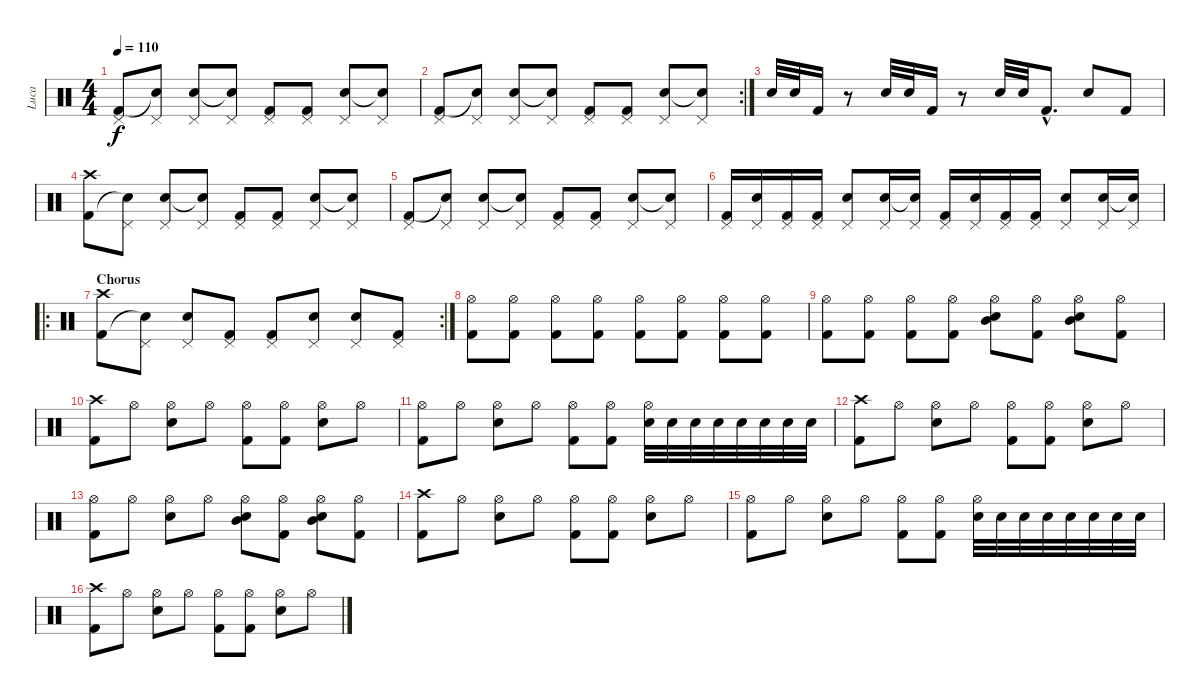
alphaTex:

\track ("Luca" "Luca") {instrument percussion}
\staff {score}
\articulation defaults
\ts (4 4)
\tempo 110
\clef neutral
\ks c
("Pedal Hi-Hat (hit)" "Kick (hit) 2").8{dy f} ("Pedal Hi-Hat (hit)" "Snare (hit) 2"{t}).8 ("Pedal Hi-Hat (hit)" "Snare (hit) 2").8 ("Pedal Hi-Hat (hit)" "Snare (hit)"{t}).8 ("Pedal Hi-Hat (hit)" "Kick (hit) 2").8 ("Pedal Hi-Hat (hit)" "Kick (hit) 2").8 ("Pedal Hi-Hat (hit)" "Snare (hit) 2").8 ("Pedal Hi-Hat (hit)" "Snare (hit)"{t}).8 |
\rc 2
("Pedal Hi-Hat (hit)" "Kick (hit) 2").8 ("Pedal Hi-Hat (hit)" "Snare (hit) 2"{t}).8 ("Pedal Hi-Hat (hit)" "Snare (hit) 2").8 ("Pedal Hi-Hat (hit)" "Snare (hit)"{t}).8 ("Pedal Hi-Hat (hit)" "Kick (hit) 2").8 ("Pedal Hi-Hat (hit)" "Kick (hit) 2").8 ("Pedal Hi-Hat (hit)" "Snare (hit) 2").8 ("Pedal Hi-Hat (hit)" "Snare (hit)"{t}).8 |
"Snare (hit) 2".32 "Snare (hit) 2".32 "Kick (hit) 2".16 r.8 "Snare (hit) 2".32 "Snare (hit) 2".32 "Kick (hit) 2".16 r.8 "Snare (hit) 2".32 "Snare (hit) 2".32 "Kick (hit) 2"{hac}.8{d} "Snare (hit) 2".8 "Kick (hit) 2".8 |
("Crash high (hit)" "Kick (hit) 2").8 ("Pedal Hi-Hat (hit)" "Snare (hit) 2"{t}).8 ("Pedal Hi-Hat (hit)" "Snare (hit) 2").8 ("Pedal Hi-Hat (hit)" "Snare (hit)"{t}).8 ("Pedal Hi-Hat (hit)" "Kick (hit) 2").8 ("Pedal Hi-Hat (hit)" "Kick (hit) 2").8 ("Pedal Hi-Hat (hit)" "Snare (hit) 2").8 ("Pedal Hi-Hat (hit)" "Snare (hit)"{t}).8 |
("Pedal Hi-Hat (hit)" "Kick (hit) 2").8 ("Pedal Hi-Hat (hit)" "Snare (hit) 2"{t}).8 ("Pedal Hi-Hat (hit)" "Snare (hit) 2").8 ("Pedal Hi-Hat (hit)" "Snare (hit)"{t}).8 ("Pedal Hi-Hat (hit)" "Kick (hit) 2").8 ("Pedal Hi-Hat (hit)" "Kick (hit) 2").8 ("Pedal Hi-Hat (hit)" "Snare (hit) 2").8 ("Pedal Hi-Hat (hit)" "Snare (hit)"{t}).8 |
("Pedal Hi-Hat (hit)" "Kick (hit) 2").16 ("Pedal Hi-Hat (hit)" "Snare (hit) 2").16 ("Pedal Hi-Hat (hit)" "Kick (hit) 2").16 ("Pedal Hi-Hat (hit)" "Kick (hit) 2").16 ("Pedal Hi-Hat (hit)" "Snare (hit) 2").8 ("Pedal Hi-Hat (hit)" "Snare (hit) 2").16 ("Pedal Hi-Hat (hit)" "Snare (hit) 2"{t}).16 ("Pedal Hi-Hat (hit)" "Kick (hit) 2").16 ("Pedal Hi-Hat (hit)" "Snare (hit) 2").16 ("Pedal Hi-Hat (hit)" "Kick (hit) 2").16 ("Pedal Hi-Hat (hit)" "Kick (hit) 2").16 ("Pedal Hi-Hat (hit)" "Snare (hit) 2").8 ("Pedal Hi-Hat (hit)" "Snare (hit) 2").16 ("Pedal Hi-Hat (hit)" "Snare (hit) 2"{t}).16 |
\ro
\rc 2
\section ("" "Chorus")
("Crash high (hit)" "Kick (hit) 2").8 ("Pedal Hi-Hat (hit)" "Snare (hit)"{t}).8 ("Pedal Hi-Hat (hit)" "Snare (hit) 2").8 ("Pedal Hi-Hat (hit)" "Kick (hit) 2").8 ("Pedal Hi-Hat (hit)" "Kick (hit) 2").8 ("Pedal Hi-Hat (hit)" "Snare (hit) 2").8 ("Pedal Hi-Hat (hit)" "Snare (hit) 2").8 ("Pedal Hi-Hat (hit)" "Kick (hit) 2").8 |
("Hi-Hat (open)" "Kick (hit) 2").8 ("Hi-Hat (open)" "Kick (hit) 2").8 ("Hi-Hat (open)" "Kick (hit) 2").8 ("Hi-Hat (open)" "Kick (hit) 2").8 ("Hi-Hat (open)" "Kick (hit) 2").8 ("Hi-Hat (open)" "Kick (hit) 2").8 ("Hi-Hat (open)" "Kick (hit) 2").8 ("Hi-Hat (open)" "Kick (hit) 2").8 |
("Hi-Hat (open)" "Kick (hit) 2").8 ("Hi-Hat (open)" "Kick (hit) 2").8 ("Hi-Hat (open)" "Kick (hit) 2").8 ("Hi-Hat (open)" "Kick (hit) 2").8 ("Hi-Hat (open)" "Snare (hit) 2" "Mid Tom (hit)").8 ("Hi-Hat (open)" "Kick (hit) 2").8 ("Hi-Hat (open)" "Snare (hit) 2" "Mid Tom (hit)").8 ("Hi-Hat (open)" "Kick (hit) 2").8 |
("Crash high (hit)" "Kick (hit) 2").8 "Hi-Hat (open)".8 ("Hi-Hat (open)" "Snare (hit) 2").8 "Hi-Hat (open)".8 ("Hi-Hat (open)" "Kick (hit) 2").8 ("Hi-Hat (open)" "Kick (hit) 2").8 ("Hi-Hat (open)" "Snare (hit) 2").8 "Hi-Hat (open)".8 |
("Hi-Hat (open)" "Kick (hit) 2").8 "Hi-Hat (open)".8 ("Hi-Hat (open)" "Snare (hit) 2").8 "Hi-Hat (open)".8 ("Hi-Hat (open)" "Kick (hit) 2").8 ("Hi-Hat (open)" "Kick (hit) 2").8 ("Hi-Hat (open)" "Snare (hit) 2").32 "Snare (hit) 2".32 "Snare (hit) 2".32 "Snare (hit) 2".32 "Snare (hit) 2".32 "Snare (hit) 2".32 "Snare (hit) 2".32 "Snare (hit) 2".32 |
("Crash high (hit)" "Kick (hit) 2").8 "Hi-Hat (open)".8 ("Hi-Hat (open)" "Snare (hit) 2").8 "Hi-Hat (open)".8 ("Hi-Hat (open)" "Kick (hit) 2").8 ("Hi-Hat (open)" "Kick (hit) 2").8 ("Hi-Hat (open)" "Snare (hit) 2").8 "Hi-Hat (open)".8 |
("Hi-Hat (open)" "Kick (hit) 2").8 "Hi-Hat (open)".8 ("Hi-Hat (open)" "Snare (hit) 2").8 "Hi-Hat (open)".8 ("Hi-Hat (open)" "Snare (hit) 2" "Mid Tom (hit)").8 ("Hi-Hat (open)" "Kick (hit) 2").8 ("Hi-Hat (open)" "Snare (hit) 2" "Mid Tom (hit)").8 ("Hi-Hat (open)" "Kick (hit) 2").8 |
("Crash high (hit)" "Kick (hit) 2").8 "Hi-Hat (open)".8 ("Hi-Hat (open)" "Snare (hit) 2").8 "Hi-Hat (open)".8 ("Hi-Hat (open)" "Kick (hit) 2").8 ("Hi-Hat (open)" "Kick (hit) 2").8 ("Hi-Hat (open)" "Snare (hit) 2").8 "Hi-Hat (open)".8 |
("Hi-Hat (open)" "Kick (hit) 2").8 "Hi-Hat (open)".8 ("Hi-Hat (open)" "Snare (hit) 2").8 "Hi-Hat (open)".8 ("Hi-Hat (open)" "Kick (hit) 2").8 ("Hi-Hat (open)" "Kick (hit) 2").8 ("Hi-Hat (open)" "Snare (hit) 2").32 "Snare (hit) 2".32 "Snare (hit) 2".32 "Snare (hit) 2".32 "Snare (hit) 2".32 "Snare (hit) 2".32 "Snare (hit) 2".32 "Snare (hit) 2".32 |
("Crash high (hit)" "Kick (hit) 2").8 "Hi-Hat (open)".8 ("Hi-Hat (open)" "Snare (hit) 2").8 "Hi-Hat (open)".8 ("Hi-Hat (open)" "Kick (hit) 2").8 ("Hi-Hat (open)" "Kick (hit) 2").8 ("Hi-Hat (open)" "Snare (hit) 2").8 "Hi-Hat (open)".8
